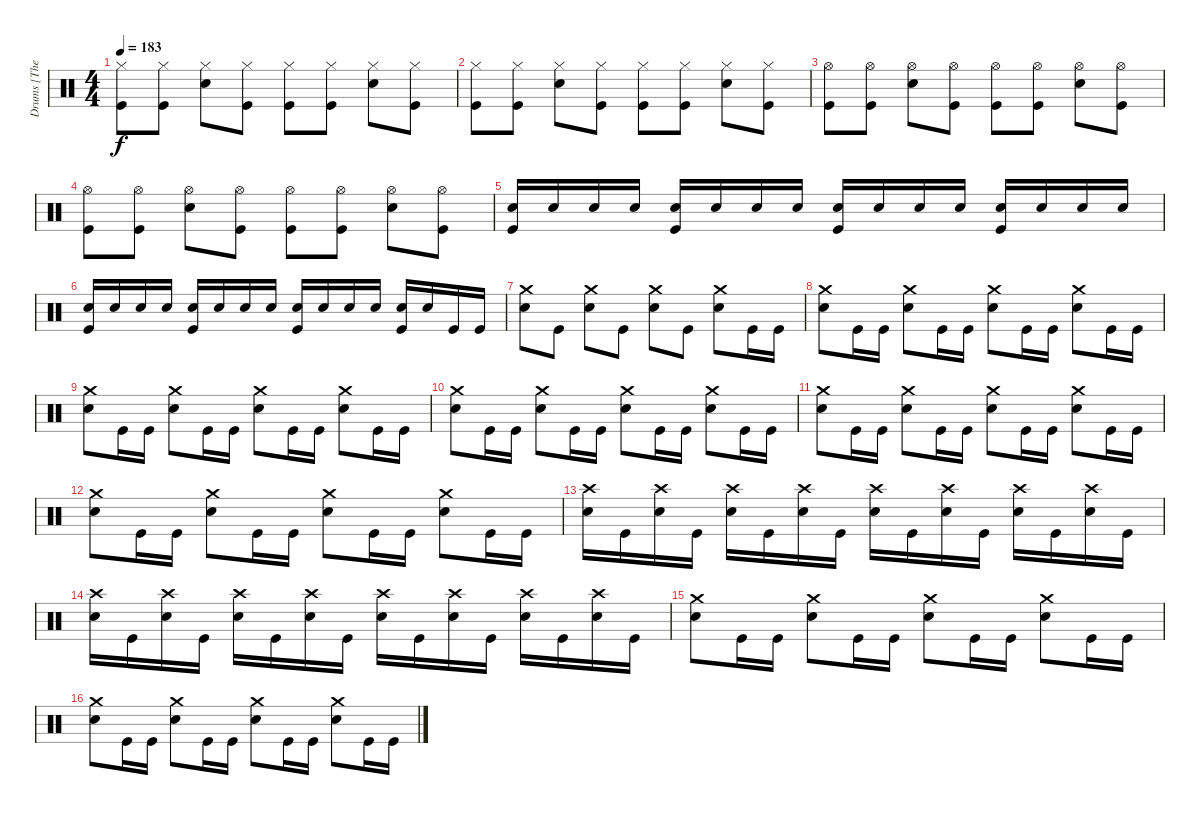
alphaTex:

\track ("Drums [The Rev]" "Drums [The") {instrument percussion}
\staff {score}
\articulation defaults
\ts (4 4)
\tempo 183
\clef neutral
\ks c
("Hi-Hat (closed)" "Kick (hit)").8{dy f} ("Hi-Hat (closed)" "Kick (hit)").8 ("Hi-Hat (closed)" "Snare (hit) 2").8 ("Hi-Hat (closed)" "Kick (hit)").8 ("Hi-Hat (closed)" "Kick (hit)").8 ("Hi-Hat (closed)" "Kick (hit)").8 ("Hi-Hat (closed)" "Snare (hit) 2").8 ("Hi-Hat (closed)" "Kick (hit)").8 |
("Hi-Hat (closed)" "Kick (hit)").8 ("Hi-Hat (closed)" "Kick (hit)").8 ("Hi-Hat (closed)" "Snare (hit) 2").8 ("Hi-Hat (closed)" "Kick (hit)").8 ("Hi-Hat (closed)" "Kick (hit)").8 ("Hi-Hat (closed)" "Kick (hit)").8 ("Hi-Hat (closed)" "Snare (hit) 2").8 ("Hi-Hat (closed)" "Kick (hit)").8 |
("Hi-Hat (open)" "Kick (hit)").8 ("Hi-Hat (open)" "Kick (hit)").8 ("Hi-Hat (open)" "Snare (hit) 2").8 ("Hi-Hat (open)" "Kick (hit)").8 ("Hi-Hat (open)" "Kick (hit)").8 ("Hi-Hat (open)" "Kick (hit)").8 ("Hi-Hat (open)" "Snare (hit) 2").8 ("Hi-Hat (open)" "Kick (hit)").8 |
("Hi-Hat (open)" "Kick (hit)").8 ("Hi-Hat (open)" "Kick (hit)").8 ("Hi-Hat (open)" "Snare (hit) 2").8 ("Hi-Hat (open)" "Kick (hit)").8 ("Hi-Hat (open)" "Kick (hit)").8 ("Hi-Hat (open)" "Kick (hit)").8 ("Hi-Hat (open)" "Snare (hit) 2").8 ("Hi-Hat (open)" "Kick (hit)").8 |
("Snare (hit) 2" "Kick (hit)").16 "Snare (hit) 2".16 "Snare (hit) 2".16 "Snare (hit) 2".16 ("Snare (hit) 2" "Kick (hit)").16 "Snare (hit) 2".16 "Snare (hit) 2".16 "Snare (hit) 2".16 ("Snare (hit) 2" "Kick (hit)").16 "Snare (hit) 2".16 "Snare (hit) 2".16 "Snare (hit) 2".16 ("Snare (hit) 2" "Kick (hit)").16 "Snare (hit) 2".16 "Snare (hit) 2".16 "Snare (hit) 2".16 |
("Snare (hit) 2" "Kick (hit)").16 "Snare (hit) 2".16 "Snare (hit) 2".16 "Snare (hit) 2".16 ("Snare (hit) 2" "Kick (hit)").16 "Snare (hit) 2".16 "Snare (hit) 2".16 "Snare (hit) 2".16 ("Snare (hit) 2" "Kick (hit)").16 "Snare (hit) 2".16 "Snare (hit) 2".16 "Snare (hit) 2".16 ("Snare (hit) 2" "Kick (hit)").16 "Snare (hit) 2".16 "Kick (hit)".16 "Kick (hit)".16 |
("Crash medium (hit)" "Snare (hit) 2").8 "Kick (hit)".8 ("Crash medium (hit)" "Snare (hit) 2").8 "Kick (hit)".8 ("Crash medium (hit)" "Snare (hit) 2").8 "Kick (hit)".8 ("Crash medium (hit)" "Snare (hit) 2").8 "Kick (hit)".16 "Kick (hit)".16 |
("Crash medium (hit)" "Snare (hit) 2").8 "Kick (hit)".16 "Kick (hit)".16 ("Crash medium (hit)" "Snare (hit) 2").8 "Kick (hit)".16 "Kick (hit)".16 ("Crash medium (hit)" "Snare (hit) 2").8 "Kick (hit)".16 "Kick (hit)".16 ("Crash medium (hit)" "Snare (hit) 2").8 "Kick (hit)".16 "Kick (hit)".16 |
("Crash medium (hit)" "Snare (hit) 2").8 "Kick (hit)".16 "Kick (hit)".16 ("Crash medium (hit)" "Snare (hit) 2").8 "Kick (hit)".16 "Kick (hit)".16 ("Crash medium (hit)" "Snare (hit) 2").8 "Kick (hit)".16 "Kick (hit)".16 ("Crash medium (hit)" "Snare (hit) 2").8 "Kick (hit)".16 "Kick (hit)".16 |
("Crash medium (hit)" "Snare (hit) 2").8 "Kick (hit)".16 "Kick (hit)".16 ("Crash medium (hit)" "Snare (hit) 2").8 "Kick (hit)".16 "Kick (hit)".16 ("Crash medium (hit)" "Snare (hit) 2").8 "Kick (hit)".16 "Kick (hit)".16 ("Crash medium (hit)" "Snare (hit) 2").8 "Kick (hit)".16 "Kick (hit)".16 |
("Crash medium (hit)" "Snare (hit) 2").8 "Kick (hit)".16 "Kick (hit)".16 ("Crash medium (hit)" "Snare (hit) 2").8 "Kick (hit)".16 "Kick (hit)".16 ("Crash medium (hit)" "Snare (hit) 2").8 "Kick (hit)".16 "Kick (hit)".16 ("Crash medium (hit)" "Snare (hit) 2").8 "Kick (hit)".16 "Kick (hit)".16 |
("Crash medium (hit)" "Snare (hit) 2").8 "Kick (hit)".16 "Kick (hit)".16 ("Crash medium (hit)" "Snare (hit) 2").8 "Kick (hit)".16 "Kick (hit)".16 ("Crash medium (hit)" "Snare (hit) 2").8 "Kick (hit)".16 "Kick (hit)".16 ("Crash medium (hit)" "Snare (hit) 2").8 "Kick (hit)".16 "Kick (hit)".16 |
("Crash high (hit)" "Snare (hit) 2").16 "Kick (hit)".16 ("Crash high (hit)" "Snare (hit) 2").16 "Kick (hit)".16 ("Crash high (hit)" "Snare (hit) 2").16 "Kick (hit)".16 ("Crash high (hit)" "Snare (hit) 2").16 "Kick (hit)".16 ("Crash high (hit)" "Snare (hit) 2").16 "Kick (hit)".16 ("Crash high (hit)" "Snare (hit) 2").16 "Kick (hit)".16 ("Crash high (hit)" "Snare (hit) 2").16 "Kick (hit)".16 ("Crash high (hit)" "Snare (hit) 2").16 "Kick (hit)".16 |
("Crash high (hit)" "Snare (hit) 2").16 "Kick (hit)".16 ("Crash high (hit)" "Snare (hit) 2").16 "Kick (hit)".16 ("Crash high (hit)" "Snare (hit) 2").16 "Kick (hit)".16 ("Crash high (hit)" "Snare (hit) 2").16 "Kick (hit)".16 ("Crash high (hit)" "Snare (hit) 2").16 "Kick (hit)".16 ("Crash high (hit)" "Snare (hit) 2").16 "Kick (hit)".16 ("Crash high (hit)" "Snare (hit) 2").16 "Kick (hit)".16 ("Crash high (hit)" "Snare (hit) 2").16 "Kick (hit)".16 |
("Crash medium (hit)" "Snare (hit) 2").8 "Kick (hit)".16 "Kick (hit)".16 ("Crash medium (hit)" "Snare (hit) 2").8 "Kick (hit)".16 "Kick (hit)".16 ("Crash medium (hit)" "Snare (hit) 2").8 "Kick (hit)".16 "Kick (hit)".16 ("Crash medium (hit)" "Snare (hit) 2").8 "Kick (hit)".16 "Kick (hit)".16 |
("Crash medium (hit)" "Snare (hit) 2").8 "Kick (hit)".16 "Kick (hit)".16 ("Crash medium (hit)" "Snare (hit) 2").8 "Kick (hit)".16 "Kick (hit)".16 ("Crash medium (hit)" "Snare (hit) 2").8 "Kick (hit)".16 "Kick (hit)".16 ("Crash medium (hit)" "Snare (hit) 2").8 "Kick (hit)".16 "Kick (hit)".16
